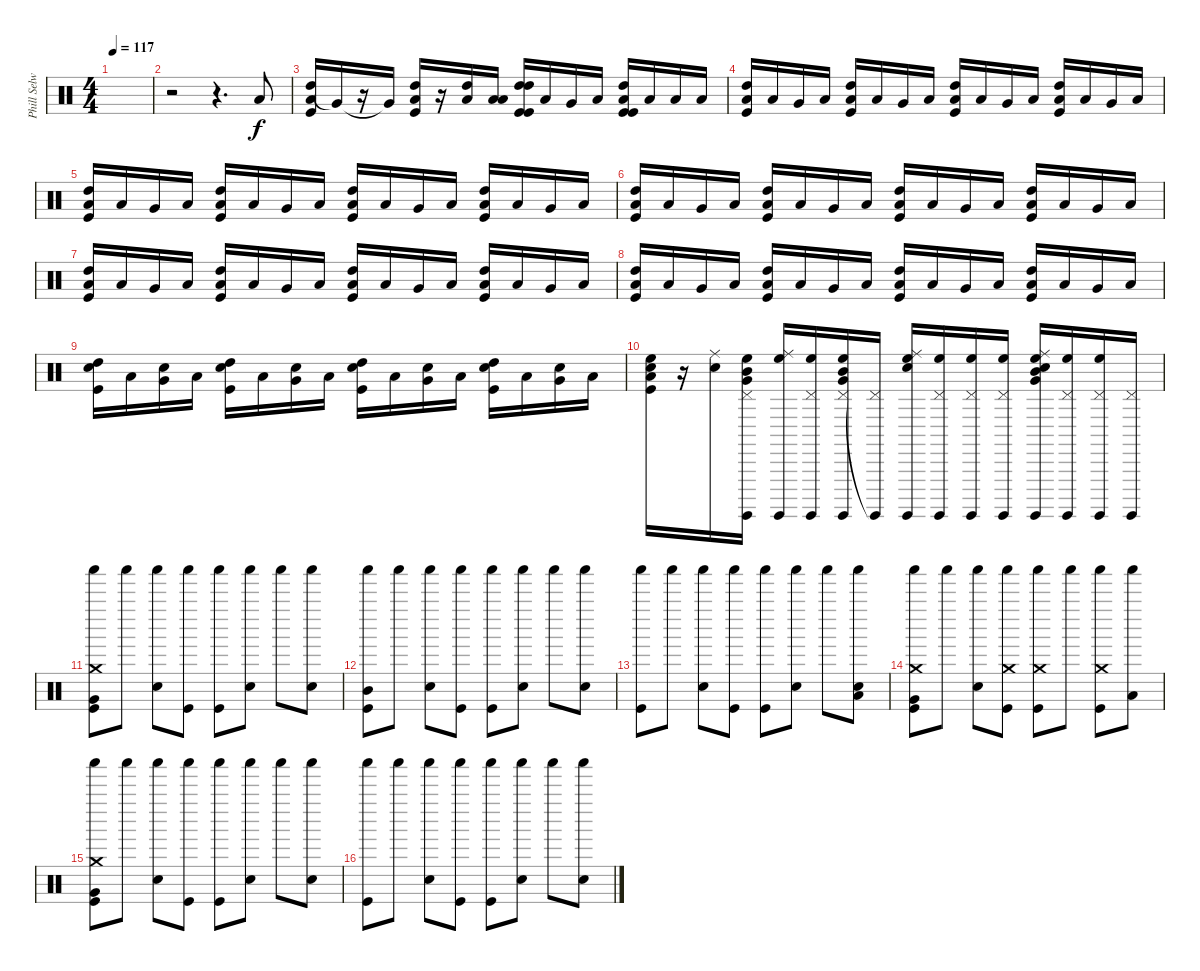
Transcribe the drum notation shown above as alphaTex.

\track ("Phill Selway" "Phill Selw") {instrument percussion}
\staff {score}
\articulation defaults
\ts (4 4)
\tempo 117
\clef neutral
\ks c
|
r.2{volume 6} r.4{d} "Low Floor Tom (hit)".8 |
("High Tom (hit)" "Low Tom (hit)" "Kick (hit)").16 "Very Low Tom (hit)"{t}.16{volume 11} r.16 "Very Low Tom (hit)"{t}.16 ("High Tom (hit)" "Low Tom (hit)" "Kick (hit)").16 r.16 ("Low Floor Tom (hit)" "High Tom (hit)").16 ("Low Floor Tom (hit)" "Low Tom (hit)").16 ("Kick (hit)" "High Tom (hit)" "High Tom (hit)" "Kick (hit)").16 "Low Floor Tom (hit)".16 "Very Low Tom (hit)".16 "Low Floor Tom (hit)".16 ("Kick (hit)" "High Tom (hit)" "Low Tom (hit)" "Kick (hit)").16 "Low Floor Tom (hit)".16 "Low Tom (hit)".16 "Low Floor Tom (hit)".16 |
("Kick (hit)" "High Tom (hit)" "Low Tom (hit)").16{volume 16} "Low Floor Tom (hit)".16 "Very Low Tom (hit)".16 "Low Floor Tom (hit)".16 ("Kick (hit)" "High Tom (hit)" "Low Tom (hit)").16 "Low Floor Tom (hit)".16 "Very Low Tom (hit)".16 "Low Floor Tom (hit)".16 ("Kick (hit)" "High Tom (hit)" "Low Tom (hit)").16 "Low Floor Tom (hit)".16 "Very Low Tom (hit)".16 "Low Floor Tom (hit)".16 ("Kick (hit)" "High Tom (hit)" "Low Tom (hit)").16 "Low Floor Tom (hit)".16 "Very Low Tom (hit)".16 "Low Floor Tom (hit)".16 |
("Kick (hit)" "High Tom (hit)" "Low Tom (hit)").16{volume 16} "Low Floor Tom (hit)".16 "Very Low Tom (hit)".16 "Low Floor Tom (hit)".16 ("Kick (hit)" "High Tom (hit)" "Low Tom (hit)").16 "Low Floor Tom (hit)".16 "Very Low Tom (hit)".16 "Low Floor Tom (hit)".16 ("Kick (hit)" "High Tom (hit)" "Low Tom (hit)").16 "Low Floor Tom (hit)".16 "Very Low Tom (hit)".16 "Low Floor Tom (hit)".16 ("Kick (hit)" "High Tom (hit)" "Low Tom (hit)").16 "Low Floor Tom (hit)".16 "Very Low Tom (hit)".16 "Low Floor Tom (hit)".16 |
("Kick (hit)" "High Tom (hit)" "Low Tom (hit)").16{volume 16} "Low Floor Tom (hit)".16 "Very Low Tom (hit)".16 "Low Floor Tom (hit)".16 ("Kick (hit)" "High Tom (hit)" "Low Tom (hit)").16 "Low Floor Tom (hit)".16 "Very Low Tom (hit)".16 "Low Floor Tom (hit)".16 ("Kick (hit)" "High Tom (hit)" "Low Tom (hit)").16 "Low Floor Tom (hit)".16 "Very Low Tom (hit)".16 "Low Floor Tom (hit)".16 ("Kick (hit)" "High Tom (hit)" "Low Tom (hit)").16 "Low Floor Tom (hit)".16 "Very Low Tom (hit)".16 "Low Floor Tom (hit)".16 |
("Kick (hit)" "High Tom (hit)" "Low Tom (hit)").16{volume 16} "Low Floor Tom (hit)".16 "Very Low Tom (hit)".16 "Low Floor Tom (hit)".16 ("Kick (hit)" "High Tom (hit)" "Low Tom (hit)").16 "Low Floor Tom (hit)".16 "Very Low Tom (hit)".16 "Low Floor Tom (hit)".16 ("Kick (hit)" "High Tom (hit)" "Low Tom (hit)").16 "Low Floor Tom (hit)".16 "Very Low Tom (hit)".16 "Low Floor Tom (hit)".16 ("Kick (hit)" "High Tom (hit)" "Low Tom (hit)").16 "Low Floor Tom (hit)".16 "Very Low Tom (hit)".16 "Low Floor Tom (hit)".16 |
("Kick (hit)" "High Tom (hit)" "Low Tom (hit)").16{volume 16} "Low Floor Tom (hit)".16 "Very Low Tom (hit)".16 "Low Floor Tom (hit)".16 ("Kick (hit)" "High Tom (hit)" "Low Tom (hit)").16 "Low Floor Tom (hit)".16 "Very Low Tom (hit)".16 "Low Floor Tom (hit)".16 ("Kick (hit)" "High Tom (hit)" "Low Tom (hit)").16 "Low Floor Tom (hit)".16 "Very Low Tom (hit)".16 "Low Floor Tom (hit)".16 ("Kick (hit)" "High Tom (hit)" "Low Tom (hit)").16 "Low Floor Tom (hit)".16 "Very Low Tom (hit)".16 "Low Floor Tom (hit)".16 |
("Kick (hit)" "High Tom (hit)" "Snare (hit) 2").16{volume 16} "Low Floor Tom (hit)".16 ("Snare (hit) 2" "Very Low Tom (hit)").16 "Low Floor Tom (hit)".16 ("Kick (hit)" "High Tom (hit)" "Snare (hit) 2").16 "Low Floor Tom (hit)".16 ("Snare (hit) 2" "Very Low Tom (hit)").16 "Low Floor Tom (hit)".16 ("Kick (hit)" "High Tom (hit)" "Snare (hit) 2").16 "Low Floor Tom (hit)".16 ("Snare (hit) 2" "Very Low Tom (hit)").16 "Low Floor Tom (hit)".16 ("Kick (hit)" "High Tom (hit)" "Snare (hit) 2").16 "Low Floor Tom (hit)".16 ("Snare (hit) 2" "Very Low Tom (hit)").16 "Low Floor Tom (hit)".16 |
("High Floor Tom (hit)" "Snare (hit) 2" "Kick (hit)" "Low Floor Tom (hit)").16{volume 16} r.16 ("Ride (middle)" "Snare (hit) 2").16 ("High Floor Tom (hit)" "Pedal Hi-Hat (hit)" "Surdo (hit)" "Mid Tom (hit)" "Very Low Tom (hit)").16 ("High Floor Tom (hit)" "Ride (middle)" "Surdo (hit)").16 ("High Floor Tom (hit)" "Pedal Hi-Hat (hit)" "Surdo (hit)").16 ("High Floor Tom (hit)" "Pedal Hi-Hat (hit)" "Surdo (hit)" "Mid Tom (hit)" "Very Low Tom (hit)").16 ("Pedal Hi-Hat (hit)" "Surdo (hit)"{t}).16 ("High Floor Tom (hit)" "Ride (middle)" "Snare (hit) 2" "Surdo (hit)").16 ("High Floor Tom (hit)" "Pedal Hi-Hat (hit)" "Surdo (hit)").16 ("High Floor Tom (hit)" "Pedal Hi-Hat (hit)" "Surdo (hit)").16 ("High Floor Tom (hit)" "Pedal Hi-Hat (hit)" "Surdo (hit)").16 ("High Floor Tom (hit)" "Ride (middle)" "Surdo (hit)" "Mid Tom (hit)" "Very Low Tom (hit)" "Snare (hit) 2").16 ("High Floor Tom (hit)" "Pedal Hi-Hat (hit)" "Surdo (hit)").16 ("High Floor Tom (hit)" "Pedal Hi-Hat (hit)" "Surdo (hit)").16 ("Pedal Hi-Hat (hit)" "Surdo (hit)").16 |
("Shaker (hit)" "Crash medium (hit)" "Kick (hit)" "Very Low Tom (hit)").8 "Shaker (hit)".8 ("Shaker (hit)" "Snare (hit) 2").8 ("Shaker (hit)" "Kick (hit)").8 ("Shaker (hit)" "Kick (hit)").8 ("Shaker (hit)" "Snare (hit) 2").8 "Shaker (hit)".8 ("Shaker (hit)" "Snare (hit) 2").8 |
("Shaker (hit)" "Mid Tom (hit)" "Kick (hit)").8 "Shaker (hit)".8 ("Shaker (hit)" "Snare (hit) 2").8 ("Shaker (hit)" "Kick (hit)").8 ("Shaker (hit)" "Kick (hit)").8 ("Shaker (hit)" "Snare (hit) 2").8 "Shaker (hit)".8 ("Shaker (hit)" "Snare (hit) 2").8 |
("Shaker (hit)" "Kick (hit)").8 "Shaker (hit)".8 ("Shaker (hit)" "Snare (hit) 2").8 ("Shaker (hit)" "Kick (hit)").8 ("Shaker (hit)" "Kick (hit)").8 ("Shaker (hit)" "Snare (hit) 2").8 "Shaker (hit)".8 ("Shaker (hit)" "Snare (hit) 2" "Low Floor Tom (hit)").8 |
("Shaker (hit)" "Crash medium (hit)" "Kick (hit)" "Very Low Tom (hit)").8 "Shaker (hit)".8 ("Shaker (hit)" "Snare (hit) 2").8 ("Shaker (hit)" "Crash medium (hit)" "Kick (hit)").8 ("Shaker (hit)" "Crash medium (hit)" "Kick (hit)").8 "Shaker (hit)".8 ("Shaker (hit)" "Crash medium (hit)" "Kick (hit)").8 ("Shaker (hit)" "Low Tom (hit)").8 |
("Shaker (hit)" "Crash medium (hit)" "Kick (hit)" "Very Low Tom (hit)").8 "Shaker (hit)".8 ("Shaker (hit)" "Snare (hit) 2").8 ("Shaker (hit)" "Kick (hit)").8 ("Shaker (hit)" "Kick (hit)").8 ("Shaker (hit)" "Snare (hit) 2").8 "Shaker (hit)".8 ("Shaker (hit)" "Snare (hit) 2").8 |
("Shaker (hit)" "Kick (hit)").8 "Shaker (hit)".8 ("Shaker (hit)" "Snare (hit) 2").8 ("Shaker (hit)" "Kick (hit)").8 ("Shaker (hit)" "Kick (hit)").8 ("Shaker (hit)" "Snare (hit) 2").8 "Shaker (hit)".8 ("Shaker (hit)" "Snare (hit) 2").8
